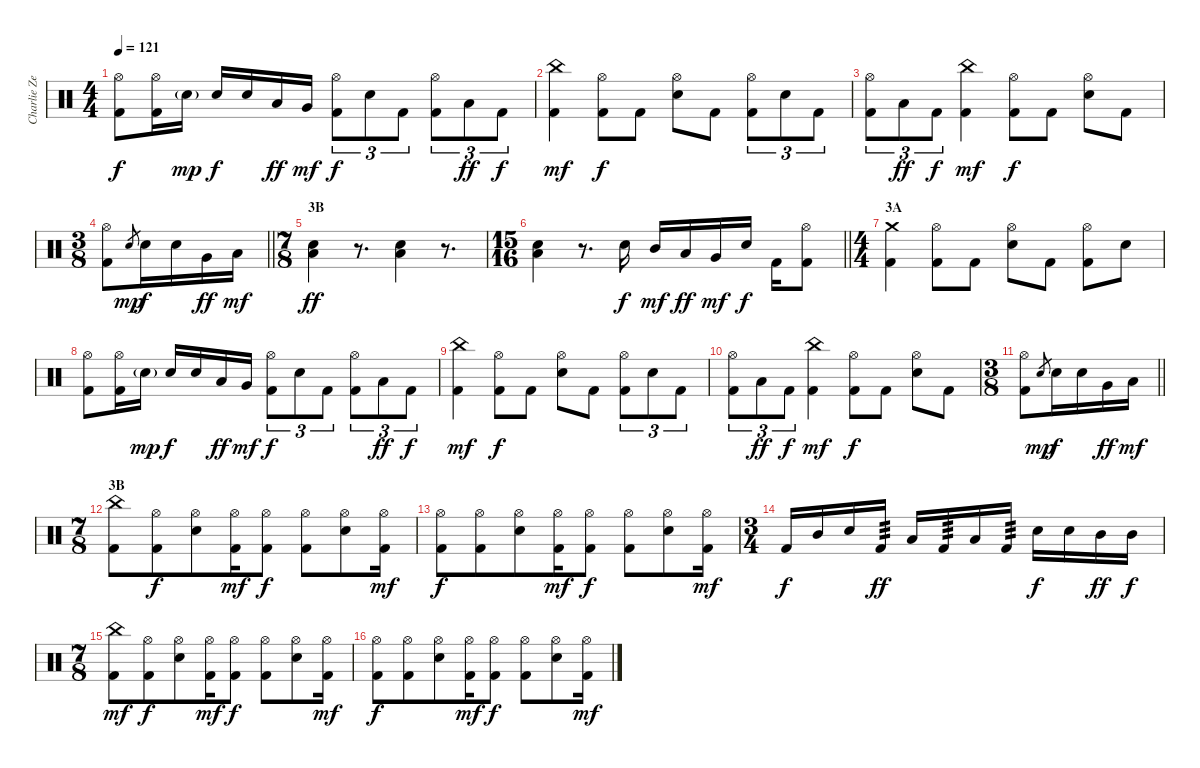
\track ("Charlie Zeleny - Drums" "Charlie Ze") {instrument percussion}
\staff {score}
\articulation defaults
\ts (4 4)
\tempo 121
\clef neutral
\ks c
("Hi-Hat (open)" "Kick (hit) 2").8{dy f} ("Hi-Hat (open)" "Kick (hit) 2").16 "Electric Snare (hit)"{g}.16{dy mp} "Electric Snare (hit)".16{dy f} "Electric Snare (hit)".16 "Low Tom (hit)".16{dy ff} "Very Low Tom (hit)".16{dy mf} ("Hi-Hat (open)" "Kick (hit) 2").8{tu (3 2) dy f} "Electric Snare (hit)".8{tu (3 2)} "Kick (hit) 2".8{tu (3 2)} ("Hi-Hat (open)" "Kick (hit) 2").8{tu (3 2)} "Low Tom (hit)".8{tu (3 2) dy ff} "Kick (hit) 2".8{tu (3 2) dy f} |
("China (hit)" "Kick (hit) 2").4{dy mf} ("Hi-Hat (open)" "Kick (hit) 2").8{dy f} "Kick (hit) 2".8 ("Hi-Hat (open)" "Electric Snare (hit)").8 "Kick (hit) 2".8 ("Hi-Hat (open)" "Kick (hit) 2").8{tu (3 2)} "Electric Snare (hit)".8{tu (3 2)} "Kick (hit) 2".8{tu (3 2)} |
("Hi-Hat (open)" "Kick (hit) 2").8{tu (3 2)} "Low Tom (hit)".8{tu (3 2) dy ff} "Kick (hit) 2".8{tu (3 2) dy f} ("China (hit)" "Kick (hit) 2").4{dy mf} ("Hi-Hat (open)" "Kick (hit) 2").8{dy f} "Kick (hit) 2".8 ("Hi-Hat (open)" "Electric Snare (hit)").8 "Kick (hit) 2".8 |
\ts (3 8)
\barLineRight lightlight
("Hi-Hat (open)" "Kick (hit) 2").8 "Electric Snare (hit)".8{gr dy mp} "Electric Snare (hit)".16{dy f} "Electric Snare (hit)".16 "Very Low Tom (hit)".16{dy ff} "Low Floor Tom (hit)".16{dy mf} |
\ts (7 8)
\section ("" "3B")
("Electric Snare (hit)" "Low Tom (hit)").4{dy ff} r.8{d} ("Electric Snare (hit)" "Low Tom (hit)").4 r.8{d} |
\ts (15 16)
\barLineRight lightlight
("Electric Snare (hit)" "Low Tom (hit)").4 r.8{d} "Electric Snare (hit)".16{dy f} "Mid Tom (hit)".16{dy mf} "Low Tom (hit)".16{dy ff} "Very Low Tom (hit)".16{dy mf} "Electric Snare (hit)".16{dy f} "Kick (hit) 2".16 ("Hi-Hat (open)" "Kick (hit) 2").8 |
\ts (4 4)
\section ("" "3A")
("Crash medium (hit)" "Kick (hit) 2").4 ("Hi-Hat (open)" "Kick (hit) 2").8 "Kick (hit) 2".8 ("Hi-Hat (open)" "Electric Snare (hit)").8 "Kick (hit) 2".8 ("Hi-Hat (open)" "Kick (hit) 2").8 "Electric Snare (hit)".8 |
("Hi-Hat (open)" "Kick (hit) 2").8 ("Hi-Hat (open)" "Kick (hit) 2").16 "Electric Snare (hit)"{g}.16{dy mp} "Electric Snare (hit)".16{dy f} "Electric Snare (hit)".16 "Low Tom (hit)".16{dy ff} "Very Low Tom (hit)".16{dy mf} ("Hi-Hat (open)" "Kick (hit) 2").8{tu (3 2) dy f} "Electric Snare (hit)".8{tu (3 2)} "Kick (hit) 2".8{tu (3 2)} ("Hi-Hat (open)" "Kick (hit) 2").8{tu (3 2)} "Low Tom (hit)".8{tu (3 2) dy ff} "Kick (hit) 2".8{tu (3 2) dy f} |
("China (hit)" "Kick (hit) 2").4{dy mf} ("Hi-Hat (open)" "Kick (hit) 2").8{dy f} "Kick (hit) 2".8 ("Hi-Hat (open)" "Electric Snare (hit)").8 "Kick (hit) 2".8 ("Hi-Hat (open)" "Kick (hit) 2").8{tu (3 2)} "Electric Snare (hit)".8{tu (3 2)} "Kick (hit) 2".8{tu (3 2)} |
("Hi-Hat (open)" "Kick (hit) 2").8{tu (3 2)} "Low Tom (hit)".8{tu (3 2) dy ff} "Kick (hit) 2".8{tu (3 2) dy f} ("China (hit)" "Kick (hit) 2").4{dy mf} ("Hi-Hat (open)" "Kick (hit) 2").8{dy f} "Kick (hit) 2".8 ("Hi-Hat (open)" "Electric Snare (hit)").8 "Kick (hit) 2".8 |
\ts (3 8)
\barLineRight lightlight
("Hi-Hat (open)" "Kick (hit) 2").8 "Electric Snare (hit)".8{gr dy mp} "Electric Snare (hit)".16{dy f} "Electric Snare (hit)".16 "Very Low Tom (hit)".16{dy ff} "Low Floor Tom (hit)".16{dy mf} |
\ts (7 8)
\section ("" "3B")
("China (hit)" "Kick (hit) 2").8 ("Hi-Hat (open)" "Kick (hit) 2").8{dy f} ("Hi-Hat (open)" "Electric Snare (hit)").8 ("Hi-Hat (open)" "Kick (hit) 2").16{dy mf} ("Hi-Hat (open)" "Kick (hit) 2").8{dy f} ("Hi-Hat (open)" "Kick (hit) 2").8 ("Hi-Hat (open)" "Electric Snare (hit)").8 ("Hi-Hat (open)" "Kick (hit) 2").16{dy mf} |
("Hi-Hat (open)" "Kick (hit) 2").8{dy f} ("Hi-Hat (open)" "Kick (hit) 2").8 ("Hi-Hat (open)" "Electric Snare (hit)").8 ("Hi-Hat (open)" "Kick (hit) 2").16{dy mf} ("Hi-Hat (open)" "Kick (hit) 2").8{dy f} ("Hi-Hat (open)" "Kick (hit) 2").8 ("Hi-Hat (open)" "Electric Snare (hit)").8 ("Hi-Hat (open)" "Kick (hit) 2").16{dy mf} |
\ts (3 4)
"Kick (hit) 2".16{dy f} "Mid Tom (hit)".16 "Electric Snare (hit)".16 "Kick (hit) 2".16{tp 3 dy ff} "Low Tom (hit)".16 "Kick (hit) 2".16{tp 3} "Low Tom (hit)".16 "Kick (hit) 2".16{tp 3} "Electric Snare (hit)".16{dy f} "Electric Snare (hit)".16 "Mid Tom (hit)".16{dy ff} "Mid Tom (hit)".16{dy f} |
\ts (7 8)
("China (hit)" "Kick (hit) 2").8{dy mf} ("Hi-Hat (open)" "Kick (hit) 2").8{dy f} ("Hi-Hat (open)" "Electric Snare (hit)").8 ("Hi-Hat (open)" "Kick (hit) 2").16{dy mf} ("Hi-Hat (open)" "Kick (hit) 2").8{dy f} ("Hi-Hat (open)" "Kick (hit) 2").8 ("Hi-Hat (open)" "Electric Snare (hit)").8 ("Hi-Hat (open)" "Kick (hit) 2").16{dy mf} |
("Hi-Hat (open)" "Kick (hit) 2").8{dy f} ("Hi-Hat (open)" "Kick (hit) 2").8 ("Hi-Hat (open)" "Electric Snare (hit)").8 ("Hi-Hat (open)" "Kick (hit) 2").16{dy mf} ("Hi-Hat (open)" "Kick (hit) 2").8{dy f} ("Hi-Hat (open)" "Kick (hit) 2").8 ("Hi-Hat (open)" "Electric Snare (hit)").8 ("Hi-Hat (open)" "Kick (hit) 2").16{dy mf}
